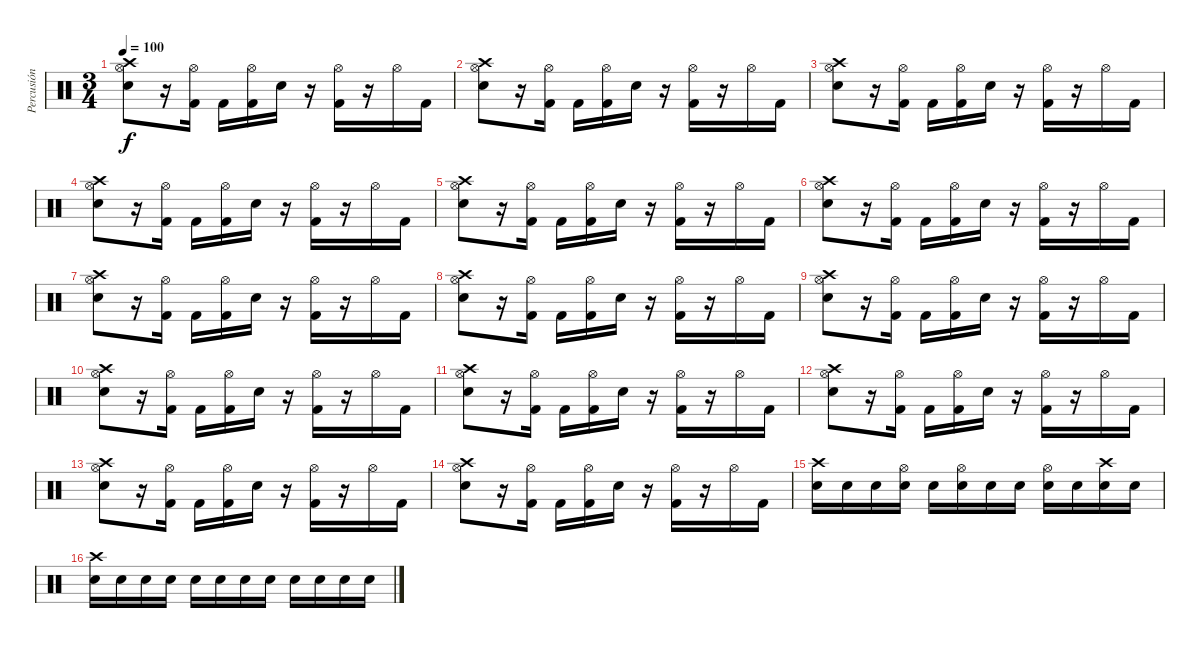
\track ("Percusión" "Percusión") {instrument percussion}
\staff {score}
\articulation defaults
\ts (3 4)
\tempo 100
\clef neutral
\ks c
("Crash high (hit)" "Hi-Hat (open)" "Electric Snare (hit)").8{dy f} r.16 ("Hi-Hat (open)" "Kick (hit) 2").16 "Kick (hit) 2".16 ("Hi-Hat (open)" "Kick (hit) 2").16 "Electric Snare (hit)".16 r.16 ("Hi-Hat (open)" "Kick (hit) 2").16 r.16 "Hi-Hat (open)".16 "Kick (hit) 2".16 |
("Crash high (hit)" "Hi-Hat (open)" "Electric Snare (hit)").8 r.16 ("Hi-Hat (open)" "Kick (hit) 2").16 "Kick (hit) 2".16 ("Hi-Hat (open)" "Kick (hit) 2").16 "Electric Snare (hit)".16 r.16 ("Hi-Hat (open)" "Kick (hit) 2").16 r.16 "Hi-Hat (open)".16 "Kick (hit) 2".16 |
("Crash high (hit)" "Hi-Hat (open)" "Electric Snare (hit)").8 r.16 ("Hi-Hat (open)" "Kick (hit) 2").16 "Kick (hit) 2".16 ("Hi-Hat (open)" "Kick (hit) 2").16 "Electric Snare (hit)".16 r.16 ("Hi-Hat (open)" "Kick (hit) 2").16 r.16 "Hi-Hat (open)".16 "Kick (hit) 2".16 |
("Crash high (hit)" "Hi-Hat (open)" "Electric Snare (hit)").8 r.16 ("Hi-Hat (open)" "Kick (hit) 2").16 "Kick (hit) 2".16 ("Hi-Hat (open)" "Kick (hit) 2").16 "Electric Snare (hit)".16 r.16 ("Hi-Hat (open)" "Kick (hit) 2").16 r.16 "Hi-Hat (open)".16 "Kick (hit) 2".16 |
("Crash high (hit)" "Hi-Hat (open)" "Electric Snare (hit)").8 r.16 ("Hi-Hat (open)" "Kick (hit) 2").16 "Kick (hit) 2".16 ("Hi-Hat (open)" "Kick (hit) 2").16 "Electric Snare (hit)".16 r.16 ("Hi-Hat (open)" "Kick (hit) 2").16 r.16 "Hi-Hat (open)".16 "Kick (hit) 2".16 |
("Crash high (hit)" "Hi-Hat (open)" "Electric Snare (hit)").8 r.16 ("Hi-Hat (open)" "Kick (hit) 2").16 "Kick (hit) 2".16 ("Hi-Hat (open)" "Kick (hit) 2").16 "Electric Snare (hit)".16 r.16 ("Hi-Hat (open)" "Kick (hit) 2").16 r.16 "Hi-Hat (open)".16 "Kick (hit) 2".16 |
("Crash high (hit)" "Hi-Hat (open)" "Electric Snare (hit)").8 r.16 ("Hi-Hat (open)" "Kick (hit) 2").16 "Kick (hit) 2".16 ("Hi-Hat (open)" "Kick (hit) 2").16 "Electric Snare (hit)".16 r.16 ("Hi-Hat (open)" "Kick (hit) 2").16 r.16 "Hi-Hat (open)".16 "Kick (hit) 2".16 |
("Crash high (hit)" "Hi-Hat (open)" "Electric Snare (hit)").8 r.16 ("Hi-Hat (open)" "Kick (hit) 2").16 "Kick (hit) 2".16 ("Hi-Hat (open)" "Kick (hit) 2").16 "Electric Snare (hit)".16 r.16 ("Hi-Hat (open)" "Kick (hit) 2").16 r.16 "Hi-Hat (open)".16 "Kick (hit) 2".16 |
("Crash high (hit)" "Hi-Hat (open)" "Electric Snare (hit)").8 r.16 ("Hi-Hat (open)" "Kick (hit) 2").16 "Kick (hit) 2".16 ("Hi-Hat (open)" "Kick (hit) 2").16 "Electric Snare (hit)".16 r.16 ("Hi-Hat (open)" "Kick (hit) 2").16 r.16 "Hi-Hat (open)".16 "Kick (hit) 2".16 |
("Crash high (hit)" "Hi-Hat (open)" "Electric Snare (hit)").8 r.16 ("Hi-Hat (open)" "Kick (hit) 2").16 "Kick (hit) 2".16 ("Hi-Hat (open)" "Kick (hit) 2").16 "Electric Snare (hit)".16 r.16 ("Hi-Hat (open)" "Kick (hit) 2").16 r.16 "Hi-Hat (open)".16 "Kick (hit) 2".16 |
("Crash high (hit)" "Hi-Hat (open)" "Electric Snare (hit)").8 r.16 ("Hi-Hat (open)" "Kick (hit) 2").16 "Kick (hit) 2".16 ("Hi-Hat (open)" "Kick (hit) 2").16 "Electric Snare (hit)".16 r.16 ("Hi-Hat (open)" "Kick (hit) 2").16 r.16 "Hi-Hat (open)".16 "Kick (hit) 2".16 |
("Crash high (hit)" "Hi-Hat (open)" "Electric Snare (hit)").8 r.16 ("Hi-Hat (open)" "Kick (hit) 2").16 "Kick (hit) 2".16 ("Hi-Hat (open)" "Kick (hit) 2").16 "Electric Snare (hit)".16 r.16 ("Hi-Hat (open)" "Kick (hit) 2").16 r.16 "Hi-Hat (open)".16 "Kick (hit) 2".16 |
("Crash high (hit)" "Hi-Hat (open)" "Electric Snare (hit)").8 r.16 ("Hi-Hat (open)" "Kick (hit) 2").16 "Kick (hit) 2".16 ("Hi-Hat (open)" "Kick (hit) 2").16 "Electric Snare (hit)".16 r.16 ("Hi-Hat (open)" "Kick (hit) 2").16 r.16 "Hi-Hat (open)".16 "Kick (hit) 2".16 |
("Crash high (hit)" "Hi-Hat (open)" "Electric Snare (hit)").8 r.16 ("Hi-Hat (open)" "Kick (hit) 2").16 "Kick (hit) 2".16 ("Hi-Hat (open)" "Kick (hit) 2").16 "Electric Snare (hit)".16 r.16 ("Hi-Hat (open)" "Kick (hit) 2").16 r.16 "Hi-Hat (open)".16 "Kick (hit) 2".16 |
("Crash high (hit)" "Electric Snare (hit)").16{volume 10} "Electric Snare (hit)".16{volume 13} "Electric Snare (hit)".16 ("Hi-Hat (open)" "Electric Snare (hit)").16 "Electric Snare (hit)".16 ("Hi-Hat (open)" "Electric Snare (hit)").16 "Electric Snare (hit)".16 "Electric Snare (hit)".16 ("Hi-Hat (open)" "Electric Snare (hit)").16 "Electric Snare (hit)".16 ("Crash high (hit)" "Electric Snare (hit)").16 "Electric Snare (hit)".16 |
("Crash high (hit)" "Electric Snare (hit)").16 "Electric Snare (hit)".16 "Electric Snare (hit)".16 "Electric Snare (hit)".16 "Electric Snare (hit)".16 "Electric Snare (hit)".16 "Electric Snare (hit)".16 "Electric Snare (hit)".16 "Electric Snare (hit)".16 "Electric Snare (hit)".16 "Electric Snare (hit)".16 "Electric Snare (hit)".16
